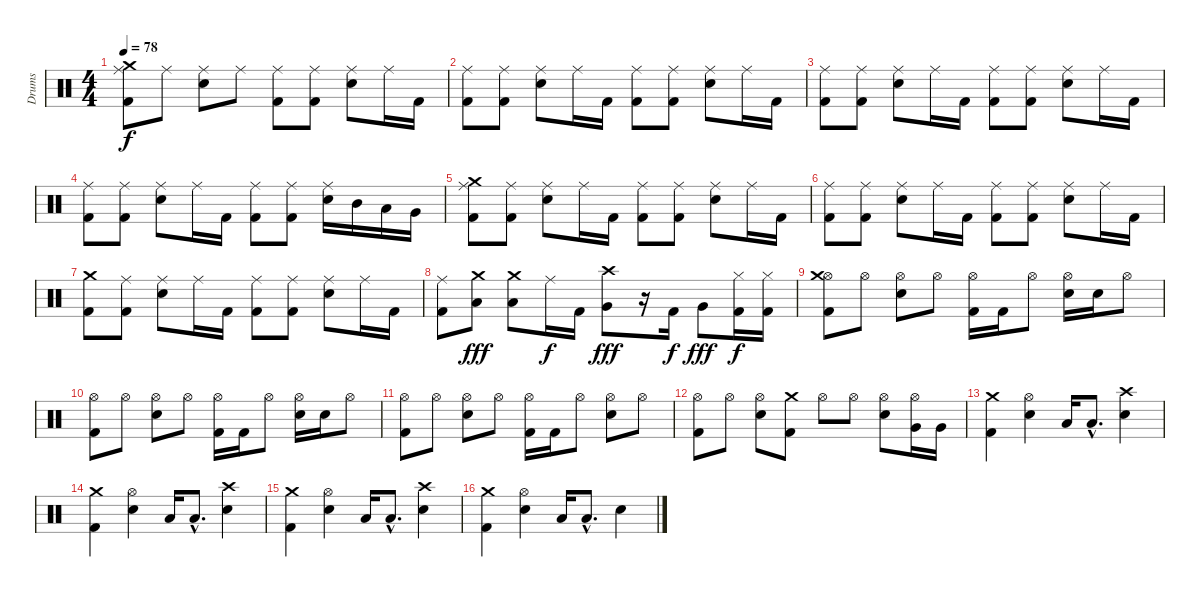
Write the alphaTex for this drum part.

\track ("Drums" "Drums") {instrument percussion}
\staff {score}
\articulation defaults
\ts (4 4)
\tempo 78
\clef neutral
\ks c
("Kick (hit) 2" "Ride (middle)" "Crash medium (hit)").8{dy f} "Ride (middle)".8 ("Electric Snare (hit)" "Ride (middle)").8 "Ride (middle)".8 ("Kick (hit) 2" "Ride (middle)").8 ("Kick (hit) 2" "Ride (middle)").8 ("Electric Snare (hit)" "Ride (middle)").8 "Ride (middle)".16 "Kick (hit) 2".16 |
("Kick (hit) 2" "Ride (middle)").8 ("Kick (hit) 2" "Ride (middle)").8 ("Electric Snare (hit)" "Ride (middle)").8 "Ride (middle)".16 "Kick (hit) 2".16 ("Kick (hit) 2" "Ride (middle)").8 ("Kick (hit) 2" "Ride (middle)").8 ("Electric Snare (hit)" "Ride (middle)").8 "Ride (middle)".16 "Kick (hit) 2".16 |
("Kick (hit) 2" "Ride (middle)").8 ("Kick (hit) 2" "Ride (middle)").8 ("Electric Snare (hit)" "Ride (middle)").8 "Ride (middle)".16 "Kick (hit) 2".16 ("Kick (hit) 2" "Ride (middle)").8 ("Kick (hit) 2" "Ride (middle)").8 ("Electric Snare (hit)" "Ride (middle)").8 "Ride (middle)".16 "Kick (hit) 2".16 |
("Kick (hit) 2" "Ride (middle)").8 ("Kick (hit) 2" "Ride (middle)").8 ("Electric Snare (hit)" "Ride (middle)").8 "Ride (middle)".16 "Kick (hit) 2".16 ("Kick (hit) 2" "Ride (middle)").8 ("Kick (hit) 2" "Ride (middle)").8 ("Electric Snare (hit)" "Ride (middle)").16 "Mid Tom (hit)".16 "Low Tom (hit)".16 "Very Low Tom (hit)".16 |
("Kick (hit) 2" "Ride (middle)" "Crash medium (hit)").8 ("Kick (hit) 2" "Ride (middle)").8 ("Electric Snare (hit)" "Ride (middle)").8 "Ride (middle)".16 "Kick (hit) 2".16 ("Kick (hit) 2" "Ride (middle)").8 ("Kick (hit) 2" "Ride (middle)").8 ("Electric Snare (hit)" "Ride (middle)").8 "Ride (middle)".16 "Kick (hit) 2".16 |
("Kick (hit) 2" "Ride (middle)").8 ("Kick (hit) 2" "Ride (middle)").8 ("Electric Snare (hit)" "Ride (middle)").8 "Ride (middle)".16 "Kick (hit) 2".16 ("Kick (hit) 2" "Ride (middle)").8 ("Kick (hit) 2" "Ride (middle)").8 ("Electric Snare (hit)" "Ride (middle)").8 "Ride (middle)".16 "Kick (hit) 2".16 |
("Kick (hit) 2" "Crash medium (hit)").8 ("Kick (hit) 2" "Ride (middle)").8 ("Electric Snare (hit)" "Ride (middle)").8 "Ride (middle)".16 "Kick (hit) 2".16 ("Kick (hit) 2" "Ride (middle)").8 ("Kick (hit) 2" "Ride (middle)").8 ("Electric Snare (hit)" "Ride (middle)").8 "Ride (middle)".16 "Kick (hit) 2".16 |
("Kick (hit) 2" "Ride (middle)").8 ("Low Tom (hit)" "Crash medium (hit)").8{dy fff} ("Low Tom (hit)" "Crash medium (hit)").8 "Ride (middle)".16{dy f} "Kick (hit) 2".16 ("Very Low Tom (hit)" "Crash high (hit)").8{dy fff} r.16 "Kick (hit) 2".16{dy f} "Very Low Tom (hit)".8{dy fff} ("Kick (hit) 2" "Hi-Hat (closed)").16{dy f} ("Kick (hit) 2" "Hi-Hat (closed)").16 |
("Kick (hit) 2" "Hi-Hat (open)" "Crash medium (hit)").8 "Hi-Hat (open)".8 ("Electric Snare (hit)" "Hi-Hat (open)").8 "Hi-Hat (open)".8 ("Kick (hit) 2" "Hi-Hat (open)").16 "Kick (hit) 2".16 "Hi-Hat (open)".8 ("Electric Snare (hit)" "Hi-Hat (open)").16 "Electric Snare (hit)".16 "Hi-Hat (open)".8 |
("Kick (hit) 2" "Hi-Hat (open)").8 "Hi-Hat (open)".8 ("Electric Snare (hit)" "Hi-Hat (open)").8 "Hi-Hat (open)".8 ("Kick (hit) 2" "Hi-Hat (open)").16 "Kick (hit) 2".16 "Hi-Hat (open)".8 ("Electric Snare (hit)" "Hi-Hat (open)").16 "Electric Snare (hit)".16 "Hi-Hat (open)".8 |
("Kick (hit) 2" "Hi-Hat (open)").8 "Hi-Hat (open)".8 ("Electric Snare (hit)" "Hi-Hat (open)").8 "Hi-Hat (open)".8 ("Kick (hit) 2" "Hi-Hat (open)").16 "Kick (hit) 2".16 "Hi-Hat (open)".8 ("Electric Snare (hit)" "Hi-Hat (open)").8 "Hi-Hat (open)".8 |
("Kick (hit) 2" "Hi-Hat (open)").8 "Hi-Hat (open)".8 ("Electric Snare (hit)" "Hi-Hat (open)").8 ("Kick (hit) 2" "Crash medium (hit)").8 "Hi-Hat (open)".8 "Hi-Hat (open)".8 ("Electric Snare (hit)" "Hi-Hat (open)").8 ("Very Low Tom (hit)" "Hi-Hat (open)").16 "Very Low Tom (hit)".16 |
("Kick (hit) 2" "Crash medium (hit)").4 ("Electric Snare (hit)" "Hi-Hat (open)").4 "Low Tom (hit)".16 "Low Tom (hit)"{hac}.8{d} ("Electric Snare (hit)" "Crash high (hit)").4 |
("Kick (hit) 2" "Crash medium (hit)").4 ("Electric Snare (hit)" "Hi-Hat (open)").4 "Low Tom (hit)".16 "Low Tom (hit)"{hac}.8{d} ("Electric Snare (hit)" "Crash high (hit)").4 |
("Kick (hit) 2" "Crash medium (hit)").4 ("Electric Snare (hit)" "Hi-Hat (open)").4 "Low Tom (hit)".16 "Low Tom (hit)"{hac}.8{d} ("Electric Snare (hit)" "Crash high (hit)").4 |
("Kick (hit) 2" "Crash medium (hit)").4 ("Electric Snare (hit)" "Hi-Hat (open)").4 "Low Tom (hit)".16 "Low Tom (hit)"{hac}.8{d} "Electric Snare (hit)".4
